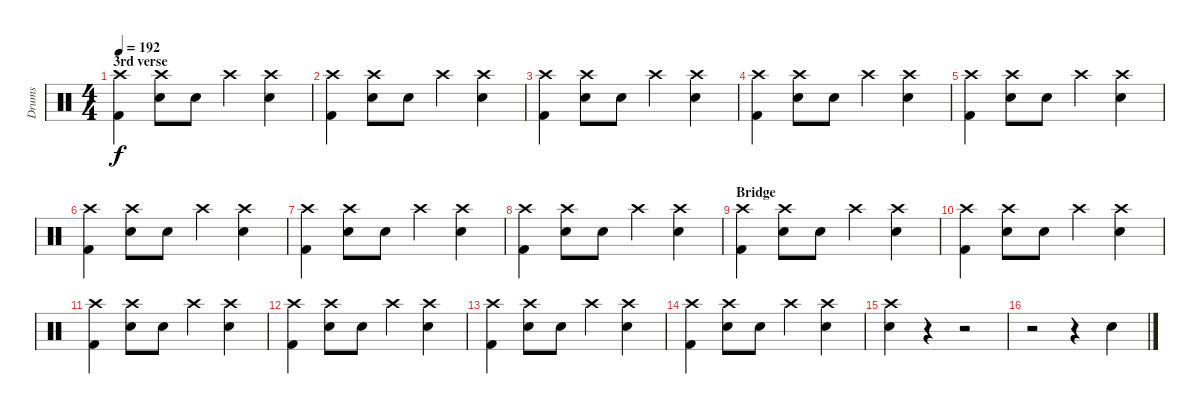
\track ("Drums" "Drums") {instrument percussion}
\staff {score}
\articulation defaults
\ts (4 4)
\section ("" "3rd verse")
\tempo 192
\clef neutral
\ks c
("Crash high (hit)" "Kick (hit) 2").4{dy f} ("Crash high (hit)" "Electric Snare (hit)").8 "Electric Snare (hit)".8 "Crash high (hit)".4 ("Crash high (hit)" "Electric Snare (hit)").4 |
("Crash high (hit)" "Kick (hit) 2").4 ("Crash high (hit)" "Electric Snare (hit)").8 "Electric Snare (hit)".8 "Crash high (hit)".4 ("Crash high (hit)" "Electric Snare (hit)").4 |
("Crash high (hit)" "Kick (hit) 2").4 ("Crash high (hit)" "Electric Snare (hit)").8 "Electric Snare (hit)".8 "Crash high (hit)".4 ("Crash high (hit)" "Electric Snare (hit)").4 |
("Crash high (hit)" "Kick (hit) 2").4 ("Crash high (hit)" "Electric Snare (hit)").8 "Electric Snare (hit)".8 "Crash high (hit)".4 ("Crash high (hit)" "Electric Snare (hit)").4 |
("Crash high (hit)" "Kick (hit) 2").4 ("Crash high (hit)" "Electric Snare (hit)").8 "Electric Snare (hit)".8 "Crash high (hit)".4 ("Crash high (hit)" "Electric Snare (hit)").4 |
("Crash high (hit)" "Kick (hit) 2").4 ("Crash high (hit)" "Electric Snare (hit)").8 "Electric Snare (hit)".8 "Crash high (hit)".4 ("Crash high (hit)" "Electric Snare (hit)").4 |
("Crash high (hit)" "Kick (hit) 2").4 ("Crash high (hit)" "Electric Snare (hit)").8 "Electric Snare (hit)".8 "Crash high (hit)".4 ("Crash high (hit)" "Electric Snare (hit)").4 |
("Crash high (hit)" "Kick (hit) 2").4 ("Crash high (hit)" "Electric Snare (hit)").8 "Electric Snare (hit)".8 "Crash high (hit)".4 ("Crash high (hit)" "Electric Snare (hit)").4 |
\section ("" "Bridge")
("Crash high (hit)" "Kick (hit) 2").4 ("Crash high (hit)" "Electric Snare (hit)").8 "Electric Snare (hit)".8 "Crash high (hit)".4 ("Crash high (hit)" "Electric Snare (hit)").4 |
("Crash high (hit)" "Kick (hit) 2").4 ("Crash high (hit)" "Electric Snare (hit)").8 "Electric Snare (hit)".8 "Crash high (hit)".4 ("Crash high (hit)" "Electric Snare (hit)").4 |
("Crash high (hit)" "Kick (hit) 2").4 ("Crash high (hit)" "Electric Snare (hit)").8 "Electric Snare (hit)".8 "Crash high (hit)".4 ("Crash high (hit)" "Electric Snare (hit)").4 |
("Crash high (hit)" "Kick (hit) 2").4 ("Crash high (hit)" "Electric Snare (hit)").8 "Electric Snare (hit)".8 "Crash high (hit)".4 ("Crash high (hit)" "Electric Snare (hit)").4 |
("Crash high (hit)" "Kick (hit) 2").4 ("Crash high (hit)" "Electric Snare (hit)").8 "Electric Snare (hit)".8 "Crash high (hit)".4 ("Crash high (hit)" "Electric Snare (hit)").4 |
("Crash high (hit)" "Kick (hit) 2").4 ("Crash high (hit)" "Electric Snare (hit)").8 "Electric Snare (hit)".8 "Crash high (hit)".4 ("Crash high (hit)" "Electric Snare (hit)").4 |
("Crash high (hit)" "Electric Snare (hit)").4 r.4 r.2 |
r.2 r.4 "Electric Snare (hit)".4
